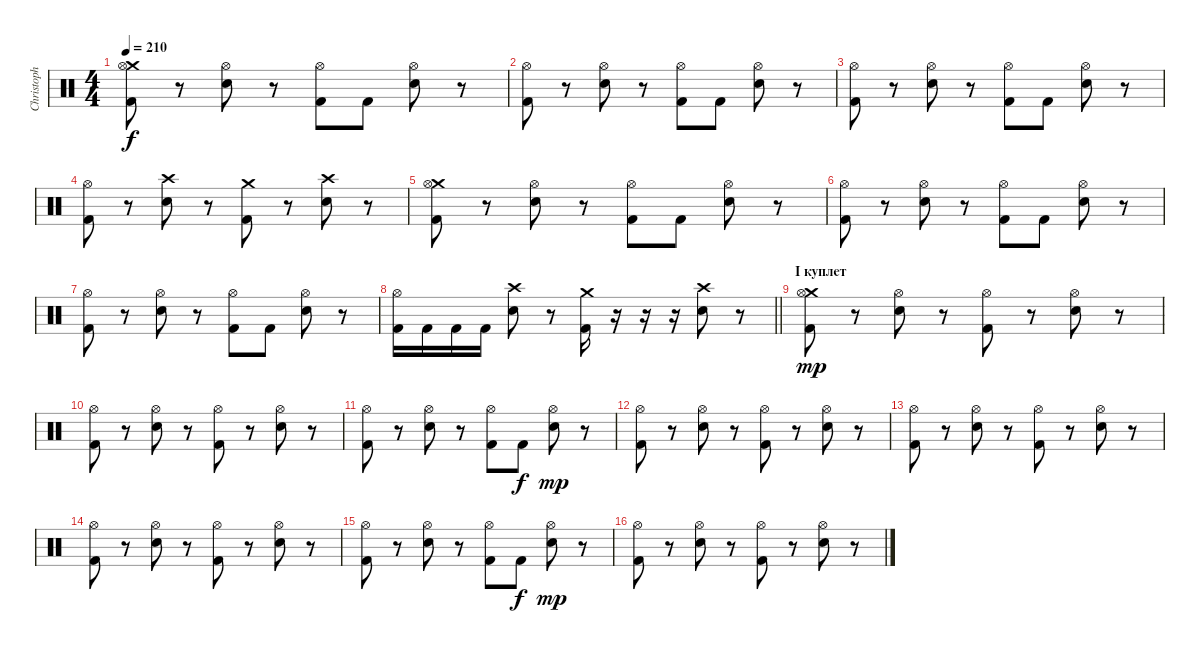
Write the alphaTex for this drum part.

\track ("Christoph Schneider" "Christoph ") {instrument percussion}
\staff {score}
\articulation defaults
\ts (4 4)
\tempo 210
\clef neutral
\ks c
("Crash medium (hit)" "Kick (hit) 2" "Hi-Hat (open)").8{dy f} r.8 ("Hi-Hat (open)" "Electric Snare (hit)").8 r.8 ("Hi-Hat (open)" "Kick (hit) 2").8 "Kick (hit) 2".8 ("Hi-Hat (open)" "Electric Snare (hit)").8 r.8 |
("Hi-Hat (open)" "Kick (hit) 2").8 r.8 ("Hi-Hat (open)" "Electric Snare (hit)").8 r.8 ("Hi-Hat (open)" "Kick (hit) 2").8 "Kick (hit) 2".8 ("Hi-Hat (open)" "Electric Snare (hit)").8 r.8 |
("Hi-Hat (open)" "Kick (hit) 2").8 r.8 ("Hi-Hat (open)" "Electric Snare (hit)").8 r.8 ("Hi-Hat (open)" "Kick (hit) 2").8 "Kick (hit) 2".8 ("Hi-Hat (open)" "Electric Snare (hit)").8 r.8 |
("Hi-Hat (open)" "Kick (hit) 2").8 r.8 ("Crash high (hit)" "Electric Snare (hit)").8 r.8 ("Crash medium (hit)" "Kick (hit) 2").8 r.8 ("Crash high (hit)" "Electric Snare (hit)").8 r.8 |
("Crash medium (hit)" "Kick (hit) 2" "Hi-Hat (open)").8 r.8 ("Hi-Hat (open)" "Electric Snare (hit)").8 r.8 ("Hi-Hat (open)" "Kick (hit) 2").8 "Kick (hit) 2".8 ("Hi-Hat (open)" "Electric Snare (hit)").8 r.8 |
("Hi-Hat (open)" "Kick (hit) 2").8 r.8 ("Hi-Hat (open)" "Electric Snare (hit)").8 r.8 ("Hi-Hat (open)" "Kick (hit) 2").8 "Kick (hit) 2".8 ("Hi-Hat (open)" "Electric Snare (hit)").8 r.8 |
("Hi-Hat (open)" "Kick (hit) 2").8 r.8 ("Hi-Hat (open)" "Electric Snare (hit)").8 r.8 ("Hi-Hat (open)" "Kick (hit) 2").8 "Kick (hit) 2".8 ("Hi-Hat (open)" "Electric Snare (hit)").8 r.8 |
\barLineRight lightlight
("Hi-Hat (open)" "Kick (hit) 2").16 "Kick (hit) 2".16 "Kick (hit) 2".16 "Kick (hit) 2".16 ("Crash high (hit)" "Electric Snare (hit)").8 r.8 ("Crash medium (hit)" "Kick (hit) 2").16 r.16 r.16 r.16 ("Crash high (hit)" "Electric Snare (hit)").8 r.8 |
\section ("" "I куплет")
("Crash medium (hit)" "Kick (hit) 2" "Hi-Hat (open)").8{dy mp} r.8 ("Hi-Hat (open)" "Electric Snare (hit)").8 r.8 ("Hi-Hat (open)" "Kick (hit) 2").8 r.8 ("Hi-Hat (open)" "Electric Snare (hit)").8 r.8 |
("Kick (hit) 2" "Hi-Hat (open)").8 r.8 ("Hi-Hat (open)" "Electric Snare (hit)").8 r.8 ("Hi-Hat (open)" "Kick (hit) 2").8 r.8 ("Hi-Hat (open)" "Electric Snare (hit)").8 r.8 |
("Kick (hit) 2" "Hi-Hat (open)").8 r.8 ("Hi-Hat (open)" "Electric Snare (hit)").8 r.8 ("Hi-Hat (open)" "Kick (hit) 2").8 "Kick (hit) 2".8{dy f} ("Hi-Hat (open)" "Electric Snare (hit)").8{dy mp} r.8 |
("Kick (hit) 2" "Hi-Hat (open)").8 r.8 ("Hi-Hat (open)" "Electric Snare (hit)").8 r.8 ("Hi-Hat (open)" "Kick (hit) 2").8 r.8 ("Hi-Hat (open)" "Electric Snare (hit)").8 r.8 |
("Kick (hit) 2" "Hi-Hat (open)").8 r.8 ("Hi-Hat (open)" "Electric Snare (hit)").8 r.8 ("Hi-Hat (open)" "Kick (hit) 2").8 r.8 ("Hi-Hat (open)" "Electric Snare (hit)").8 r.8 |
("Kick (hit) 2" "Hi-Hat (open)").8 r.8 ("Hi-Hat (open)" "Electric Snare (hit)").8 r.8 ("Hi-Hat (open)" "Kick (hit) 2").8 r.8 ("Hi-Hat (open)" "Electric Snare (hit)").8 r.8 |
("Kick (hit) 2" "Hi-Hat (open)").8 r.8 ("Hi-Hat (open)" "Electric Snare (hit)").8 r.8 ("Hi-Hat (open)" "Kick (hit) 2").8 "Kick (hit) 2".8{dy f} ("Hi-Hat (open)" "Electric Snare (hit)").8{dy mp} r.8 |
("Kick (hit) 2" "Hi-Hat (open)").8 r.8 ("Hi-Hat (open)" "Electric Snare (hit)").8 r.8 ("Hi-Hat (open)" "Kick (hit) 2").8 r.8 ("Hi-Hat (open)" "Electric Snare (hit)").8 r.8
